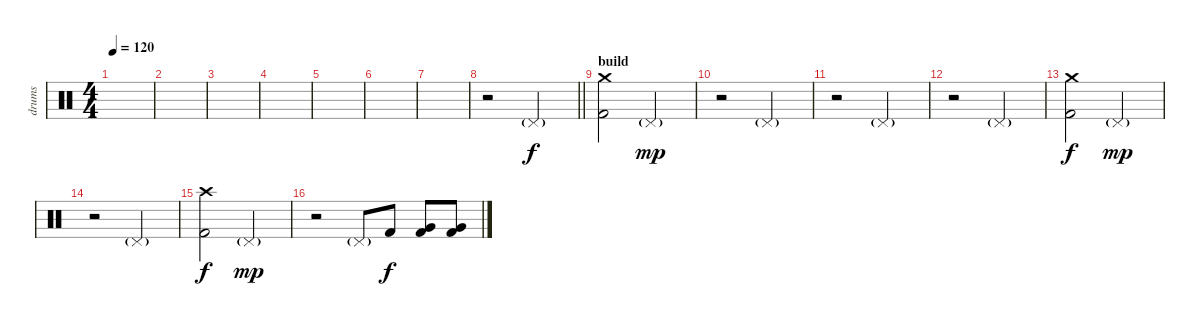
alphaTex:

\track ("drums" "drums") {instrument percussion}
\staff {score}
\articulation defaults
\ts (4 4)
\tempo 120
\clef neutral
\ks c
|
|
|
|
|
|
|
\barLineRight lightlight
r.2 "Pedal Hi-Hat (hit)"{g}.2 |
\section ("" "build")
("Crash medium (hit)" "Kick (hit) 2").2{dy f} "Pedal Hi-Hat (hit)"{g}.2{dy mp} |
r.2 "Pedal Hi-Hat (hit)"{g}.2 |
r.2 "Pedal Hi-Hat (hit)"{g}.2 |
r.2 "Pedal Hi-Hat (hit)"{g}.2 |
("Crash medium (hit)" "Kick (hit) 2").2{dy f} "Pedal Hi-Hat (hit)"{g}.2{dy mp} |
r.2 "Pedal Hi-Hat (hit)"{g}.2 |
("Crash high (hit)" "Kick (hit) 2").2{dy f} "Pedal Hi-Hat (hit)"{g}.2{dy mp} |
r.2 "Pedal Hi-Hat (hit)"{g}.8 "Kick (hit) 2".8{dy f} ("Very Low Tom (hit)" "Kick (hit) 2").8 ("Very Low Tom (hit)" "Kick (hit) 2").8
